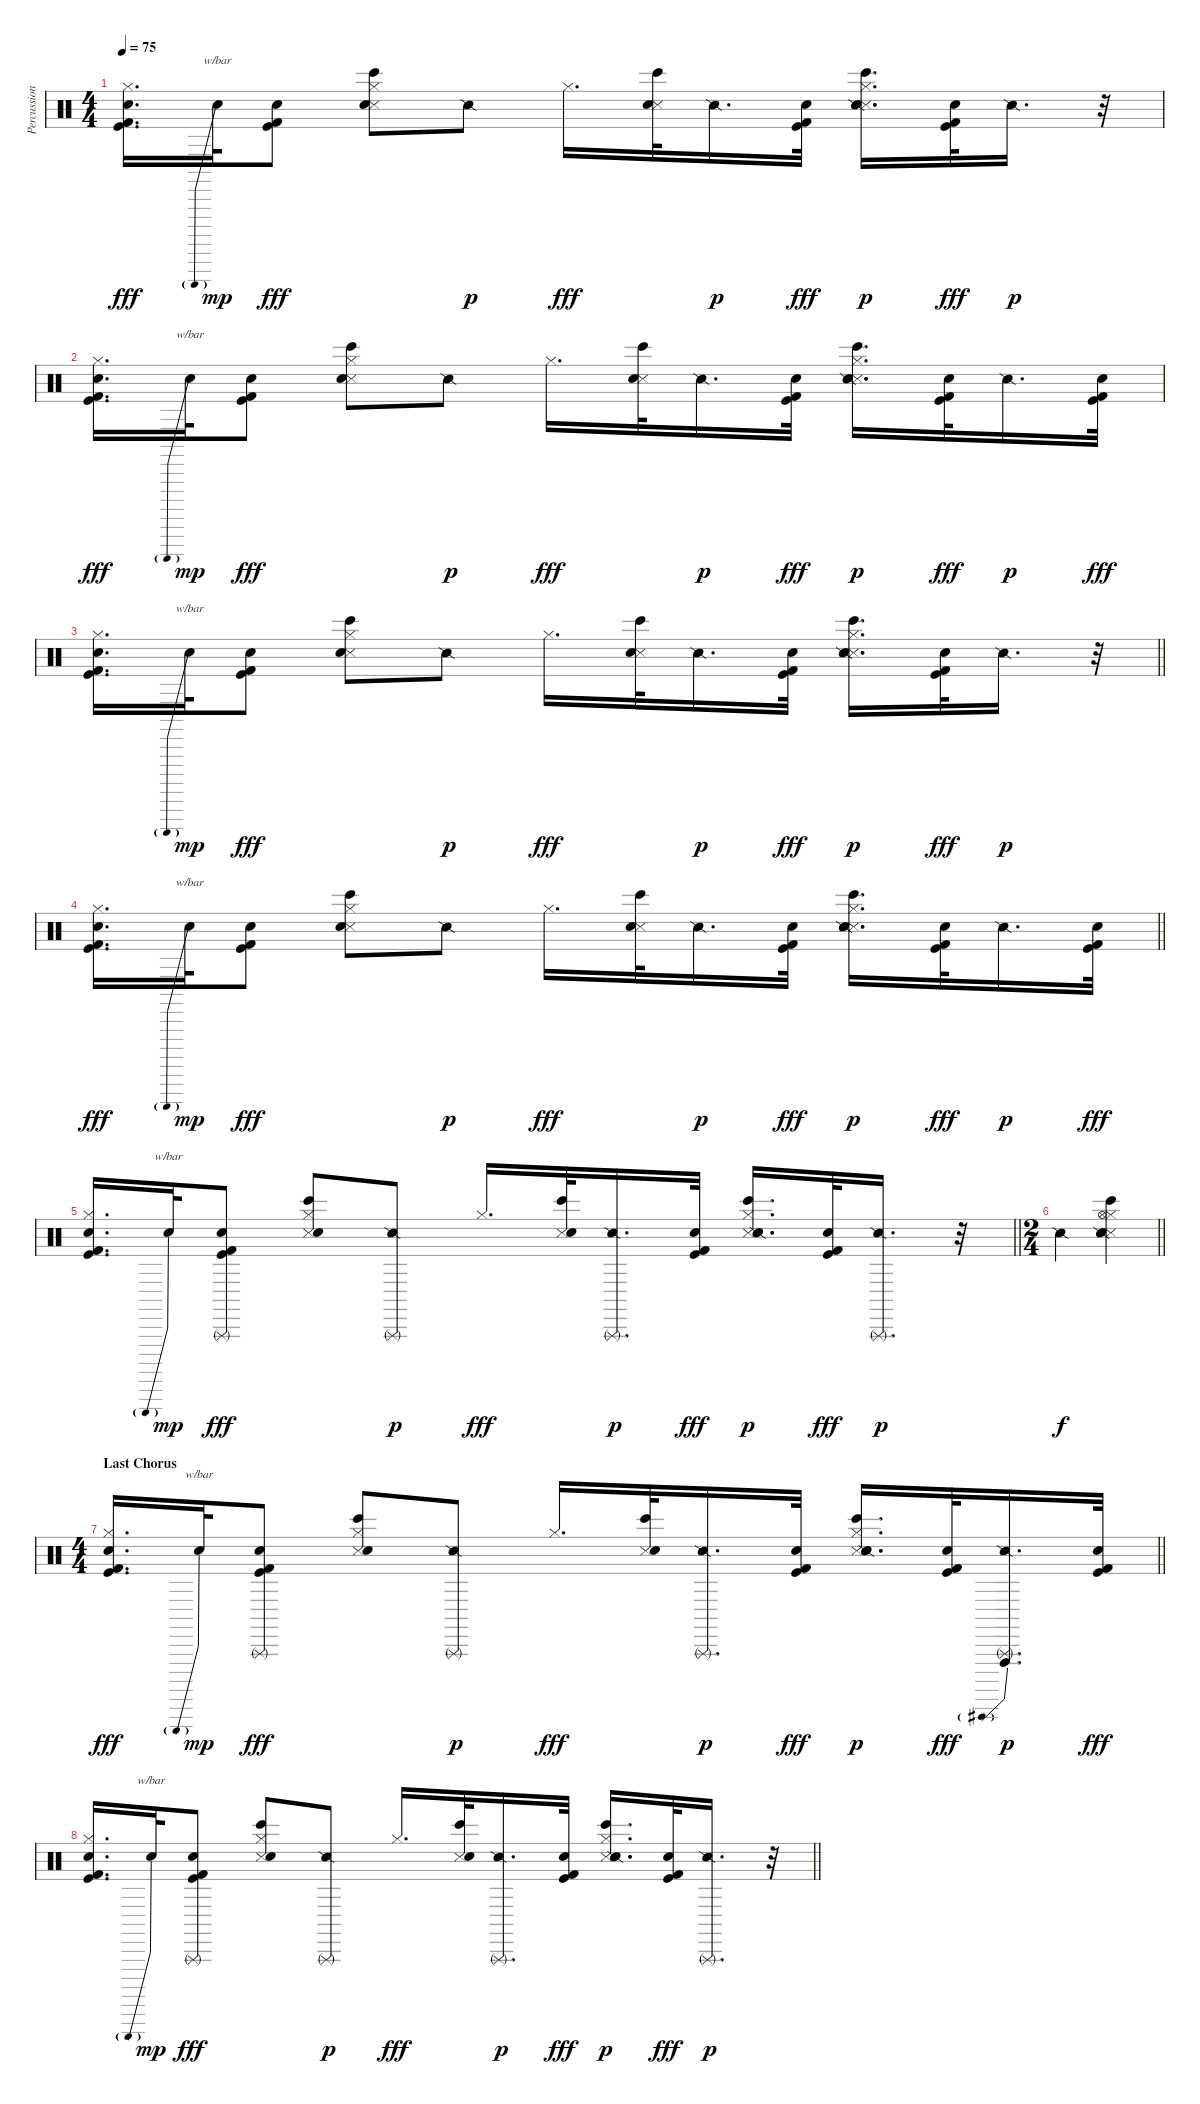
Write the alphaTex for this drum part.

\track ("Percussion" "Percussion") {instrument percussion}
\staff {score}
\articulation defaults
\ts (4 4)
\tempo 75
\clef neutral
\ks c
("Hi-Hat (closed)" "Snare (hit) 2" "Kick (hit)" "Kick (hit) 2").16{d dy fff} "Hand Clap (hit)".32{tbe (predive default 0 24 60 24) dy mp} ("Snare (hit) 2" "Kick (hit)" "Kick (hit) 2").8{dy fff} ("Hi-Hat (closed)" "Snare (side stick) 3" "Snare (hit) 2" "Bongo High (hit)").8 "Snare (side stick) 2".8{dy p} "Hi-Hat (closed)".16{d dy fff} ("Snare (side stick) 3" "Snare (hit) 2" "Bongo High (hit)").32 "Snare (side stick) 2".16{d dy p} ("Snare (hit) 2" "Kick (hit)" "Kick (hit) 2").32{dy fff} ("Hi-Hat (closed)" "Snare (side stick) 3" "Snare (hit) 2" "Bongo High (hit)" "Snare (side stick) 2").16{d dy p} ("Snare (hit) 2" "Kick (hit)" "Kick (hit) 2").32{dy fff} "Snare (side stick) 2".16{d dy p} r.32 |
("Hi-Hat (closed)" "Snare (hit) 2" "Kick (hit)" "Kick (hit) 2").16{d dy fff} "Hand Clap (hit)".32{tbe (predive default 0 24 60 24) dy mp} ("Snare (hit) 2" "Kick (hit)" "Kick (hit) 2").8{dy fff} ("Hi-Hat (closed)" "Snare (side stick) 3" "Snare (hit) 2" "Bongo High (hit)").8 "Snare (side stick) 2".8{dy p} "Hi-Hat (closed)".16{d dy fff} ("Snare (side stick) 3" "Snare (hit) 2" "Bongo High (hit)").32 "Snare (side stick) 2".16{d dy p} ("Snare (hit) 2" "Kick (hit)" "Kick (hit) 2").32{dy fff} ("Hi-Hat (closed)" "Snare (side stick) 3" "Snare (hit) 2" "Bongo High (hit)" "Snare (side stick) 2").16{d dy p} ("Snare (hit) 2" "Kick (hit)" "Kick (hit) 2").32{dy fff} "Snare (side stick) 2".16{d dy p} ("Snare (hit) 2" "Kick (hit)" "Kick (hit) 2").32{dy fff} |
\barLineRight lightlight
("Hi-Hat (closed)" "Snare (hit) 2" "Kick (hit)" "Kick (hit) 2").16{d} "Hand Clap (hit)".32{tbe (predive default 0 24 60 24) dy mp} ("Snare (hit) 2" "Kick (hit)" "Kick (hit) 2").8{dy fff} ("Hi-Hat (closed)" "Snare (side stick) 3" "Snare (hit) 2" "Bongo High (hit)").8 "Snare (side stick) 2".8{dy p} "Hi-Hat (closed)".16{d dy fff} ("Snare (side stick) 3" "Snare (hit) 2" "Bongo High (hit)").32 "Snare (side stick) 2".16{d dy p} ("Snare (hit) 2" "Kick (hit)" "Kick (hit) 2").32{dy fff} ("Hi-Hat (closed)" "Snare (side stick) 3" "Snare (hit) 2" "Bongo High (hit)" "Snare (side stick) 2").16{d dy p} ("Snare (hit) 2" "Kick (hit)" "Kick (hit) 2").32{dy fff} "Snare (side stick) 2".16{d dy p} r.32 |
\barLineRight lightlight
("Hi-Hat (closed)" "Snare (hit) 2" "Kick (hit)" "Kick (hit) 2").16{d dy fff} "Hand Clap (hit)".32{tbe (predive default 0 24 60 24) dy mp} ("Snare (hit) 2" "Kick (hit)" "Kick (hit) 2").8{dy fff} ("Hi-Hat (closed)" "Snare (side stick) 3" "Snare (hit) 2" "Bongo High (hit)").8 "Snare (side stick) 2".8{dy p} "Hi-Hat (closed)".16{d dy fff} ("Snare (side stick) 3" "Snare (hit) 2" "Bongo High (hit)").32 "Snare (side stick) 2".16{d dy p} ("Snare (hit) 2" "Kick (hit)" "Kick (hit) 2").32{dy fff} ("Hi-Hat (closed)" "Snare (side stick) 3" "Snare (hit) 2" "Bongo High (hit)" "Snare (side stick) 2").16{d dy p} ("Snare (hit) 2" "Kick (hit)" "Kick (hit) 2").32{dy fff} "Snare (side stick) 2".16{d dy p} ("Snare (hit) 2" "Kick (hit)" "Kick (hit) 2").32{dy fff} |
\barLineRight lightlight
("Hi-Hat (closed)" "Snare (hit) 2" "Kick (hit)" "Kick (hit) 2").16{d} "Hand Clap (hit)".32{tbe (predive default 0 24 60 24) dy mp} ("Triangle (rnute)" "Snare (hit) 2" "Kick (hit)" "Kick (hit) 2").8{dy fff} ("Hi-Hat (closed)" "Snare (side stick) 3" "Snare (hit) 2" "Bongo High (hit)").8 ("Triangle (rnute)" "Snare (side stick) 2").8{dy p} "Hi-Hat (closed)".16{d dy fff} ("Snare (side stick) 3" "Snare (hit) 2" "Bongo High (hit)").32 ("Triangle (rnute)" "Snare (side stick) 2").16{d dy p} ("Snare (hit) 2" "Kick (hit)" "Kick (hit) 2").32{dy fff} ("Hi-Hat (closed)" "Snare (side stick) 3" "Snare (hit) 2" "Bongo High (hit)" "Snare (side stick) 2").16{d dy p} ("Snare (hit) 2" "Kick (hit)" "Kick (hit) 2").32{dy fff} ("Triangle (rnute)" "Snare (side stick) 2").16{d dy p} r.32 |
\ts (2 4)
\barLineRight lightlight "Snare (side stick) 2".4{dy f}
("Hi-Hat (closed)" "Snare (side stick) 3" "Snare (hit) 2" "Bongo High (hit)" "Snare (side stick) 2" "Hi-Hat (open)").4 |
\ts (4 4)
\section ("" "Last Chorus")
\barLineRight lightlight
("Hi-Hat (closed)" "Snare (hit) 2" "Kick (hit)" "Kick (hit) 2").16{d dy fff} "Hand Clap (hit)".32{tbe (predive default 0 24 60 24) dy mp} ("Triangle (rnute)" "Snare (hit) 2" "Kick (hit)" "Kick (hit) 2").8{dy fff} ("Hi-Hat (closed)" "Snare (side stick) 3" "Snare (hit) 2" "Bongo High (hit)").8 ("Triangle (rnute)" "Snare (side stick) 2").8{dy p} "Hi-Hat (closed)".16{d dy fff} ("Snare (side stick) 3" "Snare (hit) 2" "Bongo High (hit)").32 ("Triangle (rnute)" "Snare (side stick) 2").16{d dy p} ("Snare (hit) 2" "Kick (hit)" "Kick (hit) 2").32{dy fff} ("Hi-Hat (closed)" "Snare (side stick) 3" "Snare (hit) 2" "Bongo High (hit)" "Snare (side stick) 2").16{d dy p} ("Snare (hit) 2" "Kick (hit)" "Kick (hit) 2").32{dy fff} ("Triangle (rnute)" "Snare (side stick) 2" "Vibraslap (hit)"{be (prebend 0 12 60 12)}).16{d dy p} ("Snare (hit) 2" "Kick (hit)" "Kick (hit) 2").32{dy fff} |
\barLineRight lightlight
("Hi-Hat (closed)" "Snare (hit) 2" "Kick (hit)" "Kick (hit) 2").16{d} "Hand Clap (hit)".32{tbe (predive default 0 24 60 24) dy mp} ("Triangle (rnute)" "Snare (hit) 2" "Kick (hit)" "Kick (hit) 2").8{dy fff} ("Hi-Hat (closed)" "Snare (side stick) 3" "Snare (hit) 2" "Bongo High (hit)").8 ("Triangle (rnute)" "Snare (side stick) 2").8{dy p} "Hi-Hat (closed)".16{d dy fff} ("Snare (side stick) 3" "Snare (hit) 2" "Bongo High (hit)").32 ("Triangle (rnute)" "Snare (side stick) 2").16{d dy p} ("Snare (hit) 2" "Kick (hit)" "Kick (hit) 2").32{dy fff} ("Hi-Hat (closed)" "Snare (side stick) 3" "Snare (hit) 2" "Bongo High (hit)" "Snare (side stick) 2").16{d dy p} ("Snare (hit) 2" "Kick (hit)" "Kick (hit) 2").32{dy fff} ("Triangle (rnute)" "Snare (side stick) 2").16{d dy p} r.32
